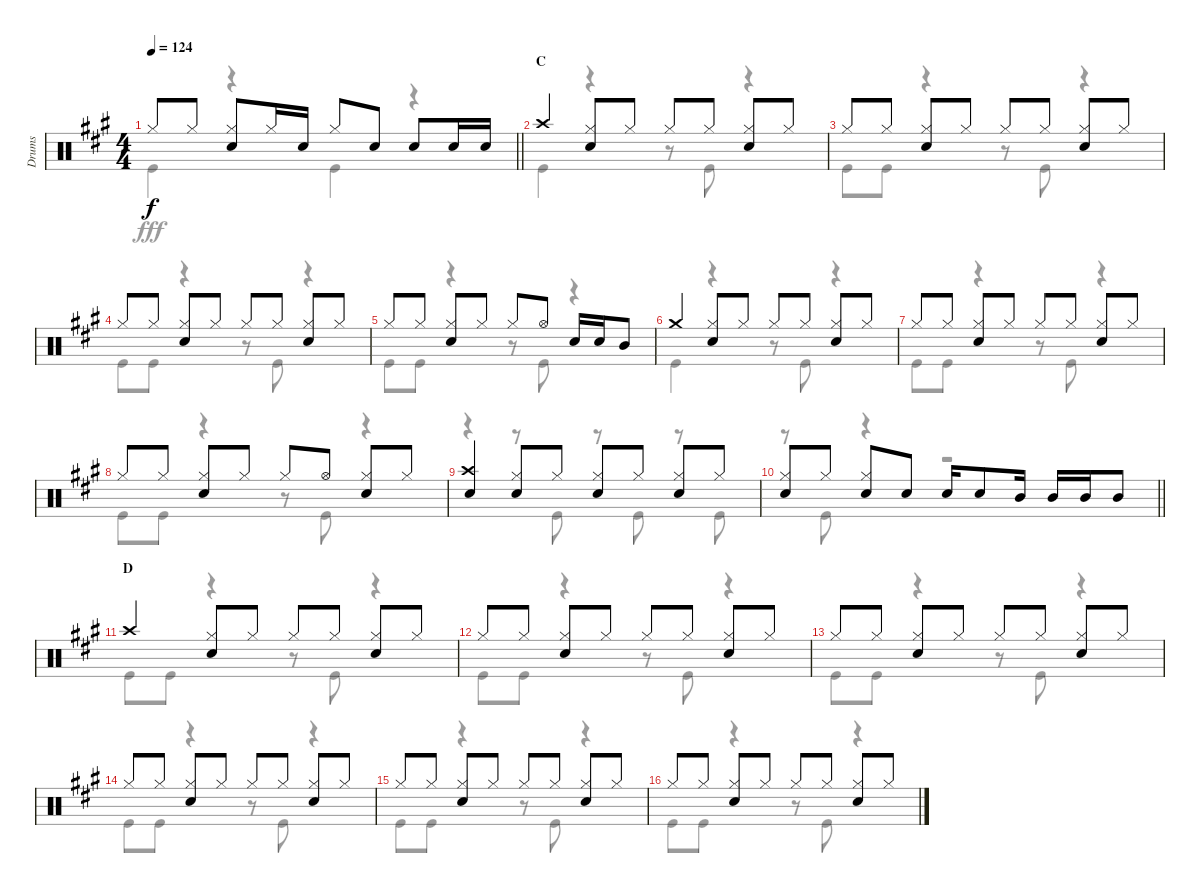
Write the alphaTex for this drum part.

\track ("Drums" "Drums") {instrument percussion}
\staff {score}
\articulation defaults
\voice
\ts (4 4)
\tempo 124
\clef neutral
\barLineRight lightlight
\ks a "Hi-Hat (closed)".8{dy f} "Hi-Hat (closed)".8
("Hi-Hat (closed)" "Snare (hit) 2").8 "Hi-Hat (closed)".16 "Snare (hit) 2".16 "Hi-Hat (closed)".8 "Snare (hit) 2".8 "Snare (hit) 2".8 "Snare (hit) 2".16 "Snare (hit) 2".16 |
\section ("" "C")
"Crash high (hit)".4 ("Hi-Hat (closed)" "Snare (hit) 2").8 "Hi-Hat (closed)".8 "Hi-Hat (closed)".8 "Hi-Hat (closed)".8 ("Hi-Hat (closed)" "Snare (hit) 2").8 "Hi-Hat (closed)".8 |
"Hi-Hat (closed)".8 "Hi-Hat (closed)".8 ("Hi-Hat (closed)" "Snare (hit) 2").8 "Hi-Hat (closed)".8 "Hi-Hat (closed)".8 "Hi-Hat (closed)".8 ("Hi-Hat (closed)" "Snare (hit) 2").8 "Hi-Hat (closed)".8 |
"Hi-Hat (closed)".8 "Hi-Hat (closed)".8 ("Hi-Hat (closed)" "Snare (hit) 2").8 "Hi-Hat (closed)".8 "Hi-Hat (closed)".8 "Hi-Hat (closed)".8 ("Hi-Hat (closed)" "Snare (hit) 2").8 "Hi-Hat (closed)".8 |
"Hi-Hat (closed)".8 "Hi-Hat (closed)".8 ("Hi-Hat (closed)" "Snare (hit) 2").8 "Hi-Hat (closed)".8 "Hi-Hat (closed)".8 "Hi-Hat (open)".8 "Snare (hit) 2".16 "Snare (hit) 2".16 "Mid Tom (hit)".8 |
"Crash medium (hit)".4 ("Hi-Hat (closed)" "Snare (hit) 2").8 "Hi-Hat (closed)".8 "Hi-Hat (closed)".8 "Hi-Hat (closed)".8 ("Hi-Hat (closed)" "Snare (hit) 2").8 "Hi-Hat (closed)".8 |
"Hi-Hat (closed)".8 "Hi-Hat (closed)".8 ("Hi-Hat (closed)" "Snare (hit) 2").8 "Hi-Hat (closed)".8 "Hi-Hat (closed)".8 "Hi-Hat (closed)".8 ("Hi-Hat (closed)" "Snare (hit) 2").8 "Hi-Hat (closed)".8 |
"Hi-Hat (closed)".8 "Hi-Hat (closed)".8 ("Hi-Hat (closed)" "Snare (hit) 2").8 "Hi-Hat (closed)".8 "Hi-Hat (closed)".8 "Hi-Hat (open)".8 ("Hi-Hat (closed)" "Snare (hit) 2").8 "Hi-Hat (closed)".8 |
("Crash high (hit)" "Snare (hit) 2").4 ("Hi-Hat (closed)" "Snare (hit) 2").8 "Hi-Hat (closed)".8 ("Hi-Hat (closed)" "Snare (hit) 2").8 "Hi-Hat (closed)".8 ("Hi-Hat (closed)" "Snare (hit) 2").8 "Hi-Hat (closed)".8 |
\barLineRight lightlight
("Hi-Hat (closed)" "Snare (hit) 2").8 "Hi-Hat (closed)".8 ("Hi-Hat (closed)" "Snare (hit) 2").8 "Snare (hit) 2".8 "Snare (hit) 2".16 "Snare (hit) 2".8 "Mid Tom (hit)".16 "Mid Tom (hit)".16 "Mid Tom (hit)".16 "Mid Tom (hit)".8 |
\section ("" "D")
"Crash high (hit)".4 ("Hi-Hat (closed)" "Snare (hit) 2").8 "Hi-Hat (closed)".8 "Hi-Hat (closed)".8 "Hi-Hat (closed)".8 ("Hi-Hat (closed)" "Snare (hit) 2").8 "Hi-Hat (closed)".8 |
"Hi-Hat (closed)".8 "Hi-Hat (closed)".8 ("Hi-Hat (closed)" "Snare (hit) 2").8 "Hi-Hat (closed)".8 "Hi-Hat (closed)".8 "Hi-Hat (closed)".8 ("Hi-Hat (closed)" "Snare (hit) 2").8 "Hi-Hat (closed)".8 |
"Hi-Hat (closed)".8 "Hi-Hat (closed)".8 ("Hi-Hat (closed)" "Snare (hit) 2").8 "Hi-Hat (closed)".8 "Hi-Hat (closed)".8 "Hi-Hat (closed)".8 ("Hi-Hat (closed)" "Snare (hit) 2").8 "Hi-Hat (closed)".8 |
"Hi-Hat (closed)".8 "Hi-Hat (closed)".8 ("Hi-Hat (closed)" "Snare (hit) 2").8 "Hi-Hat (closed)".8 "Hi-Hat (closed)".8 "Hi-Hat (closed)".8 ("Hi-Hat (closed)" "Snare (hit) 2").8 "Hi-Hat (closed)".8 |
"Hi-Hat (closed)".8 "Hi-Hat (closed)".8 ("Hi-Hat (closed)" "Snare (hit) 2").8 "Hi-Hat (closed)".8 "Hi-Hat (closed)".8 "Hi-Hat (closed)".8 ("Hi-Hat (closed)" "Snare (hit) 2").8 "Hi-Hat (closed)".8 |
"Hi-Hat (closed)".8 "Hi-Hat (closed)".8 ("Hi-Hat (closed)" "Snare (hit) 2").8 "Hi-Hat (closed)".8 "Hi-Hat (closed)".8 "Hi-Hat (closed)".8 ("Hi-Hat (closed)" "Snare (hit) 2").8 "Hi-Hat (closed)".8
\voice
\clef neutral
\ottava regular
\simile none
\barLineRight lightlight
\ks a "Kick (hit)".4{dy fff}
r.4 "Kick (hit)".4 r.4 |
"Kick (hit)".4 r.4 r.8 "Kick (hit)".8 r.4 |
"Kick (hit)".8 "Kick (hit)".8 r.4 r.8 "Kick (hit)".8 r.4 |
"Kick (hit)".8 "Kick (hit)".8 r.4 r.8 "Kick (hit)".8 r.4 |
"Kick (hit)".8 "Kick (hit)".8 r.4 r.8 "Kick (hit)".8 r.4 |
"Kick (hit)".4 r.4 r.8 "Kick (hit)".8 r.4 |
"Kick (hit)".8 "Kick (hit)".8 r.4 r.8 "Kick (hit)".8 r.4 |
"Kick (hit)".8 "Kick (hit)".8 r.4 r.8 "Kick (hit)".8 r.4 |
r.4 r.8 "Kick (hit)".8 r.8 "Kick (hit)".8 r.8 "Kick (hit)".8 |
\barLineRight lightlight
r.8 "Kick (hit)".8 r.4 r.2 |
"Kick (hit)".8 "Kick (hit)".8 r.4 r.8 "Kick (hit)".8 r.4 |
"Kick (hit)".8 "Kick (hit)".8 r.4 r.8 "Kick (hit)".8 r.4 |
"Kick (hit)".8 "Kick (hit)".8 r.4 r.8 "Kick (hit)".8 r.4 |
"Kick (hit)".8 "Kick (hit)".8 r.4 r.8 "Kick (hit)".8 r.4 |
"Kick (hit)".8 "Kick (hit)".8 r.4 r.8 "Kick (hit)".8 r.4 |
"Kick (hit)".8 "Kick (hit)".8 r.4 r.8 "Kick (hit)".8 r.4
